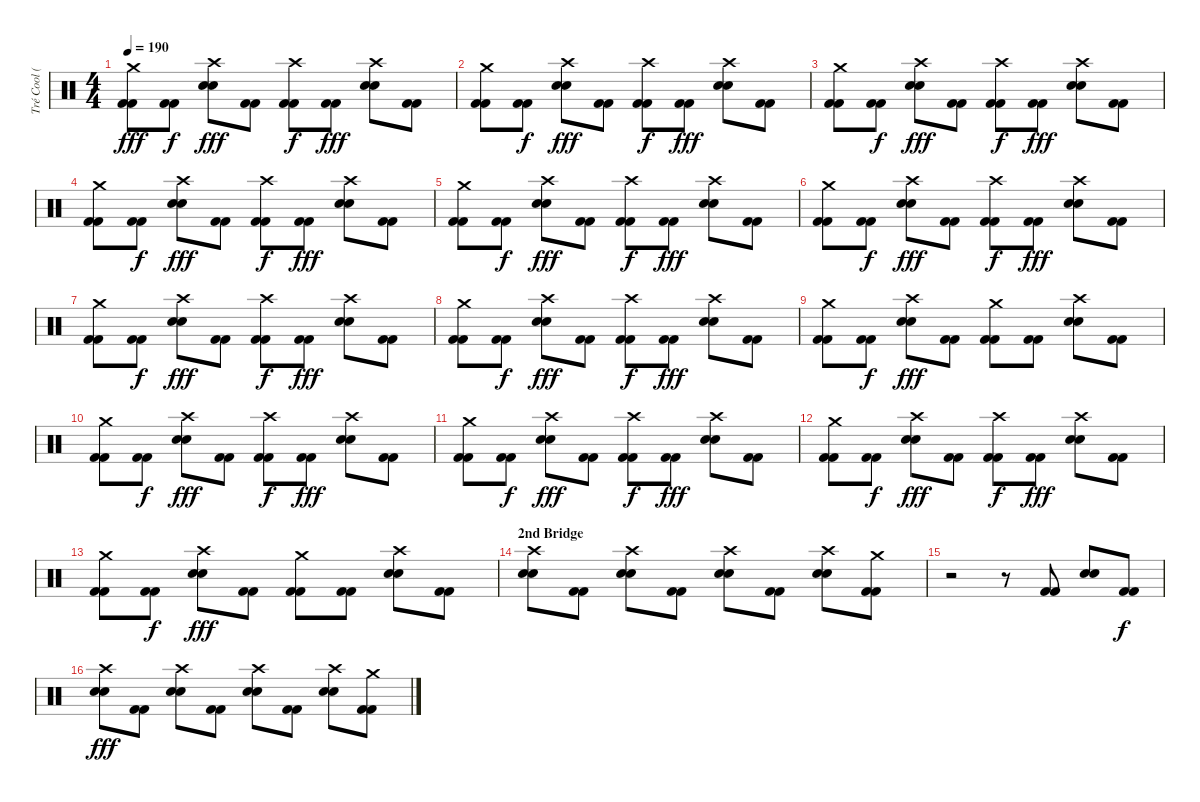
\track ("Tré Cool (Drums)" "Tré Cool (") {instrument percussion}
\staff {score}
\articulation defaults
\ts (4 4)
\tempo 190
\clef neutral
\ks c
("Kick (hit) 2" "Kick (hit) 2" "Crash medium (hit)").8{dy fff} ("Kick (hit) 2" "Kick (hit) 2").8{dy f} ("Electric Snare (hit)" "Electric Snare (hit)" "Crash high (hit)").8{dy fff} ("Kick (hit) 2" "Kick (hit) 2").8 ("Kick (hit) 2" "Kick (hit) 2" "Crash high (hit)").8{dy f} ("Kick (hit) 2" "Kick (hit) 2").8{dy fff} ("Electric Snare (hit)" "Electric Snare (hit)" "Crash high (hit)").8 ("Kick (hit) 2" "Kick (hit) 2").8 |
("Kick (hit) 2" "Kick (hit) 2" "Crash medium (hit)").8 ("Kick (hit) 2" "Kick (hit) 2").8{dy f} ("Electric Snare (hit)" "Electric Snare (hit)" "Crash high (hit)").8{dy fff} ("Kick (hit) 2" "Kick (hit) 2").8 ("Kick (hit) 2" "Kick (hit) 2" "Crash high (hit)").8{dy f} ("Kick (hit) 2" "Kick (hit) 2").8{dy fff} ("Electric Snare (hit)" "Electric Snare (hit)" "Crash high (hit)").8 ("Kick (hit) 2" "Kick (hit) 2").8 |
("Kick (hit) 2" "Kick (hit) 2" "Crash medium (hit)").8 ("Kick (hit) 2" "Kick (hit) 2").8{dy f} ("Electric Snare (hit)" "Electric Snare (hit)" "Crash high (hit)").8{dy fff} ("Kick (hit) 2" "Kick (hit) 2").8 ("Kick (hit) 2" "Kick (hit) 2" "Crash high (hit)").8{dy f} ("Kick (hit) 2" "Kick (hit) 2").8{dy fff} ("Electric Snare (hit)" "Electric Snare (hit)" "Crash high (hit)").8 ("Kick (hit) 2" "Kick (hit) 2").8 |
("Kick (hit) 2" "Kick (hit) 2" "Crash medium (hit)").8 ("Kick (hit) 2" "Kick (hit) 2").8{dy f} ("Electric Snare (hit)" "Electric Snare (hit)" "Crash high (hit)").8{dy fff} ("Kick (hit) 2" "Kick (hit) 2").8 ("Kick (hit) 2" "Kick (hit) 2" "Crash high (hit)").8{dy f} ("Kick (hit) 2" "Kick (hit) 2").8{dy fff} ("Electric Snare (hit)" "Electric Snare (hit)" "Crash high (hit)").8 ("Kick (hit) 2" "Kick (hit) 2").8 |
("Kick (hit) 2" "Kick (hit) 2" "Crash medium (hit)").8 ("Kick (hit) 2" "Kick (hit) 2").8{dy f} ("Electric Snare (hit)" "Electric Snare (hit)" "Crash high (hit)").8{dy fff} ("Kick (hit) 2" "Kick (hit) 2").8 ("Kick (hit) 2" "Kick (hit) 2" "Crash high (hit)").8{dy f} ("Kick (hit) 2" "Kick (hit) 2").8{dy fff} ("Electric Snare (hit)" "Electric Snare (hit)" "Crash high (hit)").8 ("Kick (hit) 2" "Kick (hit) 2").8 |
("Kick (hit) 2" "Kick (hit) 2" "Crash medium (hit)").8 ("Kick (hit) 2" "Kick (hit) 2").8{dy f} ("Electric Snare (hit)" "Electric Snare (hit)" "Crash high (hit)").8{dy fff} ("Kick (hit) 2" "Kick (hit) 2").8 ("Kick (hit) 2" "Kick (hit) 2" "Crash high (hit)").8{dy f} ("Kick (hit) 2" "Kick (hit) 2").8{dy fff} ("Electric Snare (hit)" "Electric Snare (hit)" "Crash high (hit)").8 ("Kick (hit) 2" "Kick (hit) 2").8 |
("Kick (hit) 2" "Kick (hit) 2" "Crash medium (hit)").8 ("Kick (hit) 2" "Kick (hit) 2").8{dy f} ("Electric Snare (hit)" "Electric Snare (hit)" "Crash high (hit)").8{dy fff} ("Kick (hit) 2" "Kick (hit) 2").8 ("Kick (hit) 2" "Kick (hit) 2" "Crash high (hit)").8{dy f} ("Kick (hit) 2" "Kick (hit) 2").8{dy fff} ("Electric Snare (hit)" "Electric Snare (hit)" "Crash high (hit)").8 ("Kick (hit) 2" "Kick (hit) 2").8 |
("Kick (hit) 2" "Kick (hit) 2" "Crash medium (hit)").8 ("Kick (hit) 2" "Kick (hit) 2").8{dy f} ("Electric Snare (hit)" "Electric Snare (hit)" "Crash high (hit)").8{dy fff} ("Kick (hit) 2" "Kick (hit) 2").8 ("Kick (hit) 2" "Kick (hit) 2" "Crash high (hit)").8{dy f} ("Kick (hit) 2" "Kick (hit) 2").8{dy fff} ("Electric Snare (hit)" "Electric Snare (hit)" "Crash high (hit)").8 ("Kick (hit) 2" "Kick (hit) 2").8 |
("Kick (hit) 2" "Kick (hit) 2" "Crash medium (hit)").8 ("Kick (hit) 2" "Kick (hit) 2").8{dy f} ("Electric Snare (hit)" "Electric Snare (hit)" "Crash high (hit)").8{dy fff} ("Kick (hit) 2" "Kick (hit) 2").8 ("Kick (hit) 2" "Kick (hit) 2" "Crash medium (hit)").8 ("Kick (hit) 2" "Kick (hit) 2").8 ("Electric Snare (hit)" "Electric Snare (hit)" "Crash high (hit)").8 ("Kick (hit) 2" "Kick (hit) 2").8 |
("Kick (hit) 2" "Kick (hit) 2" "Crash medium (hit)").8 ("Kick (hit) 2" "Kick (hit) 2").8{dy f} ("Electric Snare (hit)" "Electric Snare (hit)" "Crash high (hit)").8{dy fff} ("Kick (hit) 2" "Kick (hit) 2").8 ("Kick (hit) 2" "Kick (hit) 2" "Crash high (hit)").8{dy f} ("Kick (hit) 2" "Kick (hit) 2").8{dy fff} ("Electric Snare (hit)" "Electric Snare (hit)" "Crash high (hit)").8 ("Kick (hit) 2" "Kick (hit) 2").8 |
("Kick (hit) 2" "Kick (hit) 2" "Crash medium (hit)").8 ("Kick (hit) 2" "Kick (hit) 2").8{dy f} ("Electric Snare (hit)" "Electric Snare (hit)" "Crash high (hit)").8{dy fff} ("Kick (hit) 2" "Kick (hit) 2").8 ("Kick (hit) 2" "Kick (hit) 2" "Crash high (hit)").8{dy f} ("Kick (hit) 2" "Kick (hit) 2").8{dy fff} ("Electric Snare (hit)" "Electric Snare (hit)" "Crash high (hit)").8 ("Kick (hit) 2" "Kick (hit) 2").8 |
("Kick (hit) 2" "Kick (hit) 2" "Crash medium (hit)").8 ("Kick (hit) 2" "Kick (hit) 2").8{dy f} ("Electric Snare (hit)" "Electric Snare (hit)" "Crash high (hit)").8{dy fff} ("Kick (hit) 2" "Kick (hit) 2").8 ("Kick (hit) 2" "Kick (hit) 2" "Crash high (hit)").8{dy f} ("Kick (hit) 2" "Kick (hit) 2").8{dy fff} ("Electric Snare (hit)" "Electric Snare (hit)" "Crash high (hit)").8 ("Kick (hit) 2" "Kick (hit) 2").8 |
("Kick (hit) 2" "Kick (hit) 2" "Crash medium (hit)").8 ("Kick (hit) 2" "Kick (hit) 2").8{dy f} ("Electric Snare (hit)" "Electric Snare (hit)" "Crash high (hit)").8{dy fff} ("Kick (hit) 2" "Kick (hit) 2").8 ("Kick (hit) 2" "Kick (hit) 2" "Crash medium (hit)").8 ("Kick (hit) 2" "Kick (hit) 2").8 ("Electric Snare (hit)" "Electric Snare (hit)" "Crash high (hit)").8 ("Kick (hit) 2" "Kick (hit) 2").8 |
\section ("" "2nd Bridge")
("Electric Snare (hit)" "Electric Snare (hit)" "Crash high (hit)").8 ("Kick (hit) 2" "Kick (hit) 2").8 ("Electric Snare (hit)" "Electric Snare (hit)" "Crash high (hit)").8 ("Kick (hit) 2" "Kick (hit) 2").8 ("Electric Snare (hit)" "Electric Snare (hit)" "Crash high (hit)").8 ("Kick (hit) 2" "Kick (hit) 2").8 ("Electric Snare (hit)" "Electric Snare (hit)" "Crash high (hit)").8 ("Kick (hit) 2" "Kick (hit) 2" "Crash medium (hit)").8 |
r.2 r.8 ("Kick (hit) 2" "Kick (hit) 2").8 ("Electric Snare (hit)" "Electric Snare (hit)").8 ("Kick (hit) 2" "Kick (hit) 2").8{dy f} |
("Electric Snare (hit)" "Electric Snare (hit)" "Crash high (hit)").8{dy fff} ("Kick (hit) 2" "Kick (hit) 2").8 ("Electric Snare (hit)" "Electric Snare (hit)" "Crash high (hit)").8 ("Kick (hit) 2" "Kick (hit) 2").8 ("Electric Snare (hit)" "Electric Snare (hit)" "Crash high (hit)").8 ("Kick (hit) 2" "Kick (hit) 2").8 ("Electric Snare (hit)" "Electric Snare (hit)" "Crash high (hit)").8 ("Kick (hit) 2" "Kick (hit) 2" "Crash medium (hit)").8
